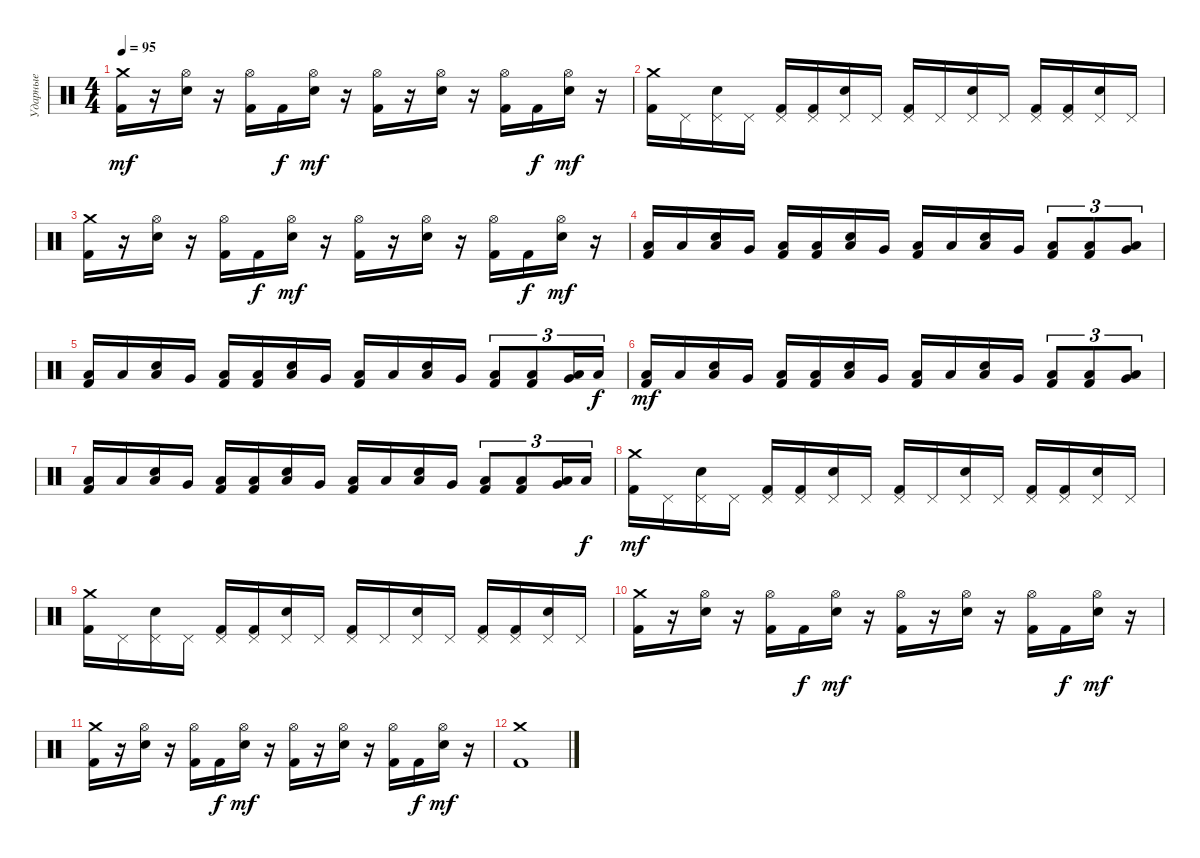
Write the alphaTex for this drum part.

\track ("Ударные" "Ударные") {instrument percussion}
\staff {score}
\articulation defaults
\ts (4 4)
\tempo 95
\clef neutral
\ks c
("Crash medium (hit)" "Kick (hit) 2").16{dy mf} r.16 ("Hi-Hat (open)" "Electric Snare (hit)").16 r.16 ("Hi-Hat (open)" "Kick (hit) 2").16 "Kick (hit) 2".16{dy f} ("Hi-Hat (open)" "Electric Snare (hit)").16{dy mf} r.16 ("Hi-Hat (open)" "Kick (hit) 2").16 r.16 ("Hi-Hat (open)" "Electric Snare (hit)").16 r.16 ("Hi-Hat (open)" "Kick (hit) 2").16 "Kick (hit) 2".16{dy f} ("Hi-Hat (open)" "Electric Snare (hit)").16{dy mf} r.16 |
("Crash medium (hit)" "Kick (hit) 2").16 "Pedal Hi-Hat (hit)".16 ("Pedal Hi-Hat (hit)" "Electric Snare (hit)").16 "Pedal Hi-Hat (hit)".16 ("Pedal Hi-Hat (hit)" "Kick (hit) 2").16 ("Pedal Hi-Hat (hit)" "Kick (hit) 2").16 ("Pedal Hi-Hat (hit)" "Electric Snare (hit)").16 "Pedal Hi-Hat (hit)".16 ("Pedal Hi-Hat (hit)" "Kick (hit) 2").16 "Pedal Hi-Hat (hit)".16 ("Pedal Hi-Hat (hit)" "Electric Snare (hit)").16 "Pedal Hi-Hat (hit)".16 ("Pedal Hi-Hat (hit)" "Kick (hit) 2").16 ("Pedal Hi-Hat (hit)" "Kick (hit) 2").16 ("Pedal Hi-Hat (hit)" "Electric Snare (hit)").16 "Pedal Hi-Hat (hit)".16 |
("Crash medium (hit)" "Kick (hit) 2").16 r.16 ("Hi-Hat (open)" "Electric Snare (hit)").16 r.16 ("Hi-Hat (open)" "Kick (hit) 2").16 "Kick (hit) 2".16{dy f} ("Hi-Hat (open)" "Electric Snare (hit)").16{dy mf} r.16 ("Hi-Hat (open)" "Kick (hit) 2").16 r.16 ("Hi-Hat (open)" "Electric Snare (hit)").16 r.16 ("Hi-Hat (open)" "Kick (hit) 2").16 "Kick (hit) 2".16{dy f} ("Hi-Hat (open)" "Electric Snare (hit)").16{dy mf} r.16 |
("Low Floor Tom (hit)" "Kick (hit) 2").16 "Low Floor Tom (hit)".16 ("Low Floor Tom (hit)" "Electric Snare (hit)").16 "Very Low Tom (hit)".16 ("Low Floor Tom (hit)" "Kick (hit) 2").16 ("Low Floor Tom (hit)" "Kick (hit) 2").16 ("Low Floor Tom (hit)" "Electric Snare (hit)").16 "Very Low Tom (hit)".16 ("Low Floor Tom (hit)" "Kick (hit) 2").16 "Low Floor Tom (hit)".16 ("Low Floor Tom (hit)" "Electric Snare (hit)").16 "Very Low Tom (hit)".16 ("Low Floor Tom (hit)" "Kick (hit) 2").8{tu (3 2)} ("Low Floor Tom (hit)" "Kick (hit) 2").8{tu (3 2)} ("Low Floor Tom (hit)" "Very Low Tom (hit)").8{tu (3 2)} |
("Low Floor Tom (hit)" "Kick (hit) 2").16 "Low Floor Tom (hit)".16 ("Low Floor Tom (hit)" "Electric Snare (hit)").16 "Very Low Tom (hit)".16 ("Low Floor Tom (hit)" "Kick (hit) 2").16 ("Low Floor Tom (hit)" "Kick (hit) 2").16 ("Low Floor Tom (hit)" "Electric Snare (hit)").16 "Very Low Tom (hit)".16 ("Low Floor Tom (hit)" "Kick (hit) 2").16 "Low Floor Tom (hit)".16 ("Low Floor Tom (hit)" "Electric Snare (hit)").16 "Very Low Tom (hit)".16 ("Low Floor Tom (hit)" "Kick (hit) 2").8{tu (3 2)} ("Low Floor Tom (hit)" "Kick (hit) 2").8{tu (3 2)} ("Low Floor Tom (hit)" "Very Low Tom (hit)").16{tu (3 2)} "Low Floor Tom (hit)".16{tu (3 2) dy f} |
("Low Floor Tom (hit)" "Kick (hit) 2").16{dy mf} "Low Floor Tom (hit)".16 ("Low Floor Tom (hit)" "Electric Snare (hit)").16 "Very Low Tom (hit)".16 ("Low Floor Tom (hit)" "Kick (hit) 2").16 ("Low Floor Tom (hit)" "Kick (hit) 2").16 ("Low Floor Tom (hit)" "Electric Snare (hit)").16 "Very Low Tom (hit)".16 ("Low Floor Tom (hit)" "Kick (hit) 2").16 "Low Floor Tom (hit)".16 ("Low Floor Tom (hit)" "Electric Snare (hit)").16 "Very Low Tom (hit)".16 ("Low Floor Tom (hit)" "Kick (hit) 2").8{tu (3 2)} ("Low Floor Tom (hit)" "Kick (hit) 2").8{tu (3 2)} ("Low Floor Tom (hit)" "Very Low Tom (hit)").8{tu (3 2)} |
("Low Floor Tom (hit)" "Kick (hit) 2").16 "Low Floor Tom (hit)".16 ("Low Floor Tom (hit)" "Electric Snare (hit)").16 "Very Low Tom (hit)".16 ("Low Floor Tom (hit)" "Kick (hit) 2").16 ("Low Floor Tom (hit)" "Kick (hit) 2").16 ("Low Floor Tom (hit)" "Electric Snare (hit)").16 "Very Low Tom (hit)".16 ("Low Floor Tom (hit)" "Kick (hit) 2").16 "Low Floor Tom (hit)".16 ("Low Floor Tom (hit)" "Electric Snare (hit)").16 "Very Low Tom (hit)".16 ("Low Floor Tom (hit)" "Kick (hit) 2").8{tu (3 2)} ("Low Floor Tom (hit)" "Kick (hit) 2").8{tu (3 2)} ("Low Floor Tom (hit)" "Very Low Tom (hit)").16{tu (3 2)} "Low Floor Tom (hit)".16{tu (3 2) dy f} |
("Crash medium (hit)" "Kick (hit) 2").16{dy mf} "Pedal Hi-Hat (hit)".16 ("Pedal Hi-Hat (hit)" "Electric Snare (hit)").16 "Pedal Hi-Hat (hit)".16 ("Pedal Hi-Hat (hit)" "Kick (hit) 2").16 ("Pedal Hi-Hat (hit)" "Kick (hit) 2").16 ("Pedal Hi-Hat (hit)" "Electric Snare (hit)").16 "Pedal Hi-Hat (hit)".16 ("Pedal Hi-Hat (hit)" "Kick (hit) 2").16 "Pedal Hi-Hat (hit)".16 ("Pedal Hi-Hat (hit)" "Electric Snare (hit)").16 "Pedal Hi-Hat (hit)".16 ("Pedal Hi-Hat (hit)" "Kick (hit) 2").16 ("Pedal Hi-Hat (hit)" "Kick (hit) 2").16 ("Pedal Hi-Hat (hit)" "Electric Snare (hit)").16 "Pedal Hi-Hat (hit)".16 |
("Crash medium (hit)" "Kick (hit) 2").16 "Pedal Hi-Hat (hit)".16 ("Pedal Hi-Hat (hit)" "Electric Snare (hit)").16 "Pedal Hi-Hat (hit)".16 ("Pedal Hi-Hat (hit)" "Kick (hit) 2").16 ("Pedal Hi-Hat (hit)" "Kick (hit) 2").16 ("Pedal Hi-Hat (hit)" "Electric Snare (hit)").16 "Pedal Hi-Hat (hit)".16 ("Pedal Hi-Hat (hit)" "Kick (hit) 2").16 "Pedal Hi-Hat (hit)".16 ("Pedal Hi-Hat (hit)" "Electric Snare (hit)").16 "Pedal Hi-Hat (hit)".16 ("Pedal Hi-Hat (hit)" "Kick (hit) 2").16 ("Pedal Hi-Hat (hit)" "Kick (hit) 2").16 ("Pedal Hi-Hat (hit)" "Electric Snare (hit)").16 "Pedal Hi-Hat (hit)".16 |
("Crash medium (hit)" "Kick (hit) 2").16 r.16 ("Hi-Hat (open)" "Electric Snare (hit)").16 r.16 ("Hi-Hat (open)" "Kick (hit) 2").16 "Kick (hit) 2".16{dy f} ("Hi-Hat (open)" "Electric Snare (hit)").16{dy mf} r.16 ("Hi-Hat (open)" "Kick (hit) 2").16 r.16 ("Hi-Hat (open)" "Electric Snare (hit)").16 r.16 ("Hi-Hat (open)" "Kick (hit) 2").16 "Kick (hit) 2".16{dy f} ("Hi-Hat (open)" "Electric Snare (hit)").16{dy mf} r.16 |
("Crash medium (hit)" "Kick (hit) 2").16 r.16 ("Hi-Hat (open)" "Electric Snare (hit)").16 r.16 ("Hi-Hat (open)" "Kick (hit) 2").16 "Kick (hit) 2".16{dy f} ("Hi-Hat (open)" "Electric Snare (hit)").16{dy mf} r.16 ("Hi-Hat (open)" "Kick (hit) 2").16 r.16 ("Hi-Hat (open)" "Electric Snare (hit)").16 r.16 ("Hi-Hat (open)" "Kick (hit) 2").16 "Kick (hit) 2".16{dy f} ("Hi-Hat (open)" "Electric Snare (hit)").16{dy mf} r.16 |
("Crash medium (hit)" "Kick (hit) 2").1
